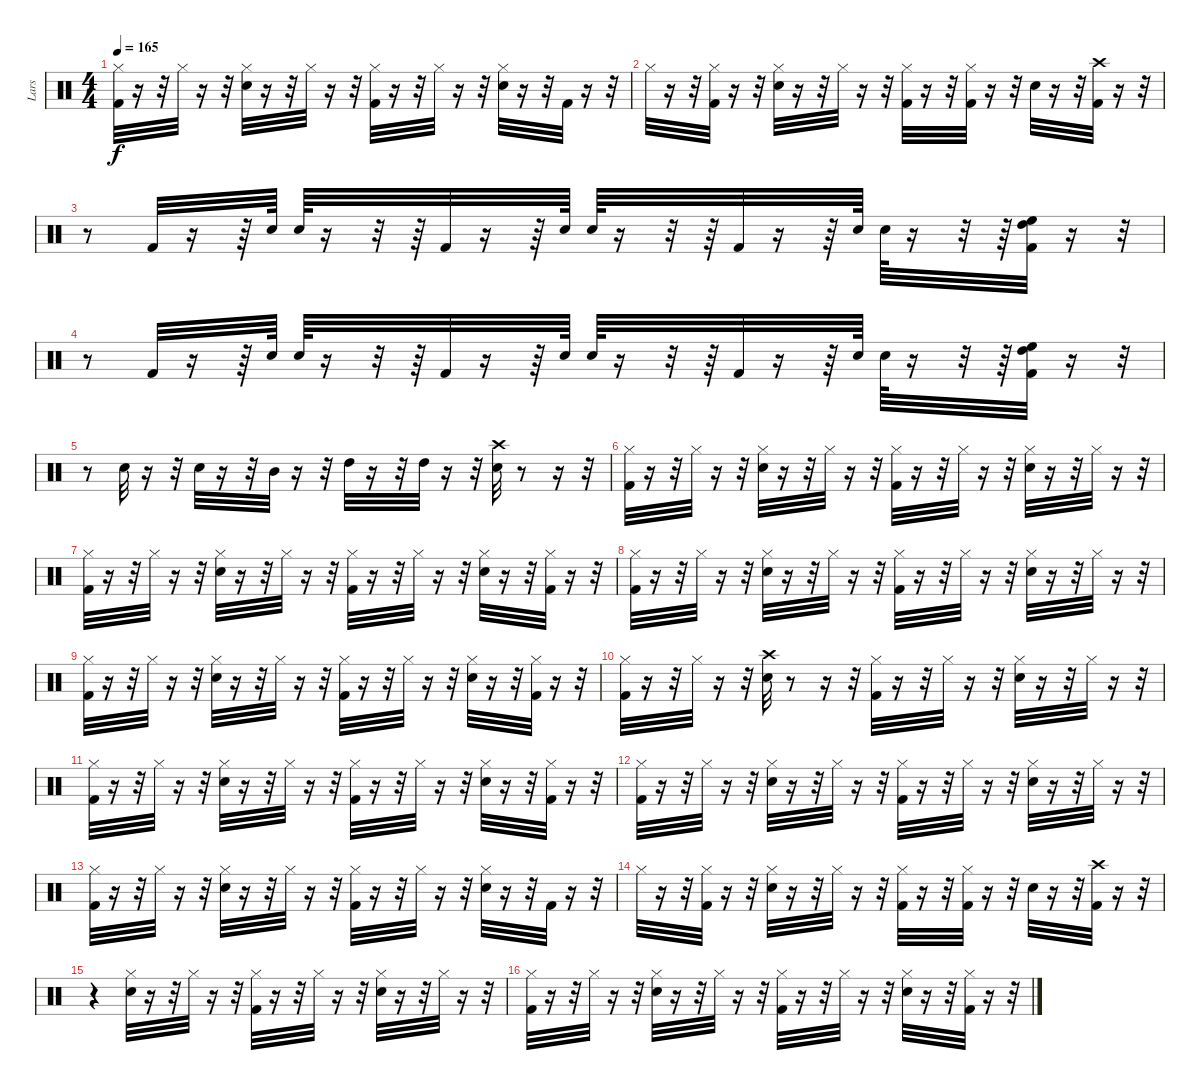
\track ("Lars" "Lars") {instrument percussion}
\staff {score}
\articulation defaults
\ts (4 4)
\tempo 165
\clef neutral
\ks c
("Kick (hit) 2" "Hi-Hat (closed)").32{dy f} r.16 r.32 "Hi-Hat (closed)".32 r.16 r.32 ("Snare (hit) 2" "Hi-Hat (closed)").32 r.16 r.32 "Hi-Hat (closed)".32 r.16 r.32 ("Hi-Hat (closed)" "Kick (hit) 2").32 r.16 r.32 "Hi-Hat (closed)".32 r.16 r.32 ("Snare (hit) 2" "Hi-Hat (closed)").32 r.16 r.32 "Kick (hit) 2".32 r.16 r.32 |
"Hi-Hat (closed)".32 r.16 r.32 ("Kick (hit) 2" "Hi-Hat (closed)").32 r.16 r.32 ("Snare (hit) 2" "Hi-Hat (closed)").32 r.16 r.32 "Hi-Hat (closed)".32 r.16 r.32 ("Hi-Hat (closed)" "Kick (hit) 2").32 r.16 r.32 ("Hi-Hat (closed)" "Kick (hit) 2").32 r.16 r.32 "Snare (hit) 2".32 r.16 r.32 ("Crash high (hit)" "Kick (hit) 2").32 r.16 r.32 |
r.8 "Kick (hit) 2".32 r.16 r.64 "Snare (hit) 2".64 "Snare (hit) 2".64 r.16 r.32 r.64 "Kick (hit) 2".32 r.16 r.64 "Snare (hit) 2".64 "Snare (hit) 2".64 r.16 r.32 r.64 "Kick (hit) 2".32 r.16 r.64 "Snare (hit) 2".64 "Snare (hit) 2".64 r.16 r.32 r.64 ("High Tom (hit)" "High Floor Tom (hit)" "Kick (hit) 2").32 r.16 r.32 |
r.8 "Kick (hit) 2".32 r.16 r.64 "Snare (hit) 2".64 "Snare (hit) 2".64 r.16 r.32 r.64 "Kick (hit) 2".32 r.16 r.64 "Snare (hit) 2".64 "Snare (hit) 2".64 r.16 r.32 r.64 "Kick (hit) 2".32 r.16 r.64 "Snare (hit) 2".64 "Snare (hit) 2".64 r.16 r.32 r.64 ("High Tom (hit)" "High Floor Tom (hit)" "Kick (hit) 2").32 r.16 r.32 |
r.8 "Snare (hit) 2".32 r.16 r.32 "Snare (hit) 2".32 r.16 r.32 "Mid Tom (hit)".32 r.16 r.32 "High Tom (hit)".32 r.16 r.32 "High Tom (hit)".32 r.16 r.32 ("Crash high (hit)" "Snare (hit) 2").32 r.8 r.16 r.32 |
("Kick (hit) 2" "Hi-Hat (closed)").32 r.16 r.32 "Hi-Hat (closed)".32 r.16 r.32 ("Snare (hit) 2" "Hi-Hat (closed)").32 r.16 r.32 "Hi-Hat (closed)".32 r.16 r.32 ("Hi-Hat (closed)" "Kick (hit) 2").32 r.16 r.32 "Hi-Hat (closed)".32 r.16 r.32 ("Hi-Hat (closed)" "Snare (hit) 2").32 r.16 r.32 "Hi-Hat (closed)".32 r.16 r.32 |
("Kick (hit) 2" "Hi-Hat (closed)").32 r.16 r.32 "Hi-Hat (closed)".32 r.16 r.32 ("Snare (hit) 2" "Hi-Hat (closed)").32 r.16 r.32 "Hi-Hat (closed)".32 r.16 r.32 ("Hi-Hat (closed)" "Kick (hit) 2").32 r.16 r.32 "Hi-Hat (closed)".32 r.16 r.32 ("Snare (hit) 2" "Hi-Hat (closed)").32 r.16 r.32 ("Kick (hit) 2" "Hi-Hat (closed)").32 r.16 r.32 |
("Kick (hit) 2" "Hi-Hat (closed)").32 r.16 r.32 "Hi-Hat (closed)".32 r.16 r.32 ("Snare (hit) 2" "Hi-Hat (closed)").32 r.16 r.32 "Hi-Hat (closed)".32 r.16 r.32 ("Kick (hit) 2" "Hi-Hat (closed)").32 r.16 r.32 "Hi-Hat (closed)".32 r.16 r.32 ("Snare (hit) 2" "Hi-Hat (closed)").32 r.16 r.32 "Hi-Hat (closed)".32 r.16 r.32 |
("Kick (hit) 2" "Hi-Hat (closed)").32 r.16 r.32 "Hi-Hat (closed)".32 r.16 r.32 ("Snare (hit) 2" "Hi-Hat (closed)").32 r.16 r.32 "Hi-Hat (closed)".32 r.16 r.32 ("Hi-Hat (closed)" "Kick (hit) 2").32 r.16 r.32 "Hi-Hat (closed)".32 r.16 r.32 ("Snare (hit) 2" "Hi-Hat (closed)").32 r.16 r.32 ("Kick (hit) 2" "Hi-Hat (closed)").32 r.16 r.32 |
("Kick (hit) 2" "Hi-Hat (closed)").32 r.16 r.32 "Hi-Hat (closed)".32 r.16 r.32 ("Crash high (hit)" "Snare (hit) 2").32 r.8 r.16 r.32 ("Hi-Hat (closed)" "Kick (hit) 2").32 r.16 r.32 "Hi-Hat (closed)".32 r.16 r.32 ("Snare (hit) 2" "Hi-Hat (closed)").32 r.16 r.32 "Hi-Hat (closed)".32 r.16 r.32 |
("Hi-Hat (closed)" "Kick (hit) 2").32 r.16 r.32 "Hi-Hat (closed)".32 r.16 r.32 ("Snare (hit) 2" "Hi-Hat (closed)").32 r.16 r.32 "Hi-Hat (closed)".32 r.16 r.32 ("Hi-Hat (closed)" "Kick (hit) 2").32 r.16 r.32 "Hi-Hat (closed)".32 r.16 r.32 ("Snare (hit) 2" "Hi-Hat (closed)").32 r.16 r.32 ("Hi-Hat (closed)" "Kick (hit) 2").32 r.16 r.32 |
("Kick (hit) 2" "Hi-Hat (closed)").32 r.16 r.32 "Hi-Hat (closed)".32 r.16 r.32 ("Snare (hit) 2" "Hi-Hat (closed)").32 r.16 r.32 "Hi-Hat (closed)".32 r.16 r.32 ("Hi-Hat (closed)" "Kick (hit) 2").32 r.16 r.32 "Hi-Hat (closed)".32 r.16 r.32 ("Hi-Hat (closed)" "Snare (hit) 2").32 r.16 r.32 "Hi-Hat (closed)".32 r.16 r.32 |
("Kick (hit) 2" "Hi-Hat (closed)").32 r.16 r.32 "Hi-Hat (closed)".32 r.16 r.32 ("Snare (hit) 2" "Hi-Hat (closed)").32 r.16 r.32 "Hi-Hat (closed)".32 r.16 r.32 ("Hi-Hat (closed)" "Kick (hit) 2").32 r.16 r.32 "Hi-Hat (closed)".32 r.16 r.32 ("Snare (hit) 2" "Hi-Hat (closed)").32 r.16 r.32 "Kick (hit) 2".32 r.16 r.32 |
"Hi-Hat (closed)".32 r.16 r.32 ("Kick (hit) 2" "Hi-Hat (closed)").32 r.16 r.32 ("Snare (hit) 2" "Hi-Hat (closed)").32 r.16 r.32 "Hi-Hat (closed)".32 r.16 r.32 ("Hi-Hat (closed)" "Kick (hit) 2").32 r.16 r.32 ("Hi-Hat (closed)" "Kick (hit) 2").32 r.16 r.32 "Snare (hit) 2".32 r.16 r.32 ("Crash high (hit)" "Kick (hit) 2").32 r.16 r.32 |
r.4 ("Snare (hit) 2" "Hi-Hat (closed)").32 r.16 r.32 "Hi-Hat (closed)".32 r.16 r.32 ("Hi-Hat (closed)" "Kick (hit) 2").32 r.16 r.32 "Hi-Hat (closed)".32 r.16 r.32 ("Snare (hit) 2" "Hi-Hat (closed)").32 r.16 r.32 "Hi-Hat (closed)".32 r.16 r.32 |
("Hi-Hat (closed)" "Kick (hit) 2").32 r.16 r.32 "Hi-Hat (closed)".32 r.16 r.32 ("Snare (hit) 2" "Hi-Hat (closed)").32 r.16 r.32 "Hi-Hat (closed)".32 r.16 r.32 ("Hi-Hat (closed)" "Kick (hit) 2").32 r.16 r.32 "Hi-Hat (closed)".32 r.16 r.32 ("Snare (hit) 2" "Hi-Hat (closed)").32 r.16 r.32 ("Kick (hit) 2" "Hi-Hat (closed)").32 r.16 r.32
